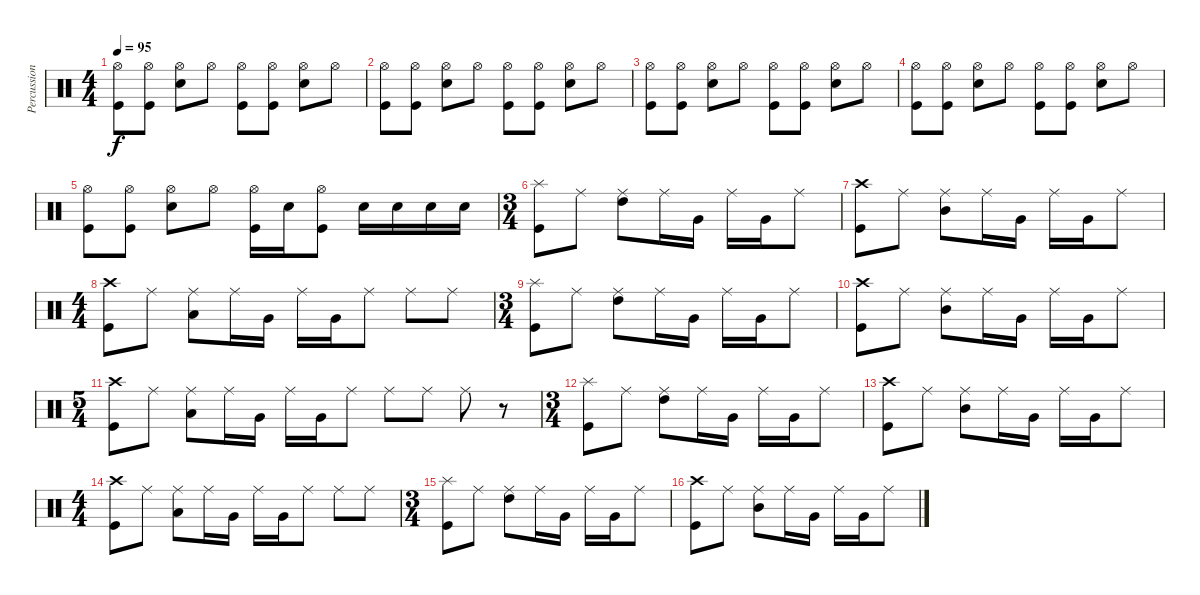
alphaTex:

\track ("Percussion" "Percussion") {instrument percussion}
\staff {score}
\articulation defaults
\ts (4 4)
\tempo 95
\clef neutral
\ks c
("Hi-Hat (open)" "Kick (hit)").8{dy f} ("Hi-Hat (open)" "Kick (hit)").8 ("Hi-Hat (open)" "Snare (hit) 2").8 "Hi-Hat (open)".8 ("Hi-Hat (open)" "Kick (hit)").8 ("Hi-Hat (open)" "Kick (hit)").8 ("Hi-Hat (open)" "Snare (hit) 2").8 "Hi-Hat (open)".8 |
("Hi-Hat (open)" "Kick (hit)").8 ("Hi-Hat (open)" "Kick (hit)").8 ("Hi-Hat (open)" "Snare (hit) 2").8 "Hi-Hat (open)".8 ("Hi-Hat (open)" "Kick (hit)").8 ("Hi-Hat (open)" "Kick (hit)").8 ("Hi-Hat (open)" "Snare (hit) 2").8 "Hi-Hat (open)".8 |
("Hi-Hat (open)" "Kick (hit)").8 ("Hi-Hat (open)" "Kick (hit)").8 ("Hi-Hat (open)" "Snare (hit) 2").8 "Hi-Hat (open)".8 ("Hi-Hat (open)" "Kick (hit)").8 ("Hi-Hat (open)" "Kick (hit)").8 ("Hi-Hat (open)" "Snare (hit) 2").8 "Hi-Hat (open)".8 |
("Hi-Hat (open)" "Kick (hit)").8 ("Hi-Hat (open)" "Kick (hit)").8 ("Hi-Hat (open)" "Snare (hit) 2").8 "Hi-Hat (open)".8 ("Hi-Hat (open)" "Kick (hit)").8 ("Hi-Hat (open)" "Kick (hit)").8 ("Hi-Hat (open)" "Snare (hit) 2").8 "Hi-Hat (open)".8 |
("Hi-Hat (open)" "Kick (hit)").8 ("Hi-Hat (open)" "Kick (hit)").8 ("Hi-Hat (open)" "Snare (hit) 2").8 "Hi-Hat (open)".8 ("Hi-Hat (open)" "Kick (hit)").16 "Snare (hit) 2".16 ("Hi-Hat (open)" "Kick (hit)").8 "Snare (hit) 2".16 "Snare (hit) 2".16 "Snare (hit) 2".16 "Snare (hit) 2".16 |
\ts (3 4)
("Splash (hit)" "Kick (hit)").8 "Ride (middle)".8 ("Ride (middle)" "High Tom (hit)").8 "Ride (middle)".16 "Very Low Tom (hit)".16 "Ride (middle)".16 "Very Low Tom (hit)".16 "Ride (middle)".8 |
("Crash high (hit)" "Kick (hit)").8 "Ride (middle)".8 ("Ride (middle)" "Mid Tom (hit)").8 "Ride (middle)".16 "Very Low Tom (hit)".16 "Ride (middle)".16 "Very Low Tom (hit)".16 "Ride (middle)".8 |
\ts (4 4)
("Crash high (hit)" "Kick (hit)").8 "Ride (middle)".8 ("Ride (middle)" "Low Tom (hit)").8 "Ride (middle)".16 "Very Low Tom (hit)".16 "Ride (middle)".16 "Very Low Tom (hit)".16 "Ride (middle)".8 "Ride (middle)".8 "Ride (middle)".8 |
\ts (3 4)
("Splash (hit)" "Kick (hit)").8 "Ride (middle)".8 ("Ride (middle)" "High Tom (hit)").8 "Ride (middle)".16 "Very Low Tom (hit)".16 "Ride (middle)".16 "Very Low Tom (hit)".16 "Ride (middle)".8 |
("Crash high (hit)" "Kick (hit)").8 "Ride (middle)".8 ("Ride (middle)" "Mid Tom (hit)").8 "Ride (middle)".16 "Very Low Tom (hit)".16 "Ride (middle)".16 "Very Low Tom (hit)".16 "Ride (middle)".8 |
\ts (5 4)
("Crash high (hit)" "Kick (hit)").8 "Ride (middle)".8 ("Ride (middle)" "Low Tom (hit)").8 "Ride (middle)".16 "Very Low Tom (hit)".16 "Ride (middle)".16 "Very Low Tom (hit)".16 "Ride (middle)".8 "Ride (middle)".8 "Ride (middle)".8 "Ride (middle)".8 r.8 |
\ts (3 4)
("Splash (hit)" "Kick (hit)").8 "Ride (middle)".8 ("Ride (middle)" "High Tom (hit)").8 "Ride (middle)".16 "Very Low Tom (hit)".16 "Ride (middle)".16 "Very Low Tom (hit)".16 "Ride (middle)".8 |
("Crash high (hit)" "Kick (hit)").8 "Ride (middle)".8 ("Ride (middle)" "Mid Tom (hit)").8 "Ride (middle)".16 "Very Low Tom (hit)".16 "Ride (middle)".16 "Very Low Tom (hit)".16 "Ride (middle)".8 |
\ts (4 4)
("Crash high (hit)" "Kick (hit)").8 "Ride (middle)".8 ("Ride (middle)" "Low Tom (hit)").8 "Ride (middle)".16 "Very Low Tom (hit)".16 "Ride (middle)".16 "Very Low Tom (hit)".16 "Ride (middle)".8 "Ride (middle)".8 "Ride (middle)".8 |
\ts (3 4)
("Splash (hit)" "Kick (hit)").8 "Ride (middle)".8 ("Ride (middle)" "High Tom (hit)").8 "Ride (middle)".16 "Very Low Tom (hit)".16 "Ride (middle)".16 "Very Low Tom (hit)".16 "Ride (middle)".8 |
("Crash high (hit)" "Kick (hit)").8 "Ride (middle)".8 ("Ride (middle)" "Mid Tom (hit)").8 "Ride (middle)".16 "Very Low Tom (hit)".16 "Ride (middle)".16 "Very Low Tom (hit)".16 "Ride (middle)".8
